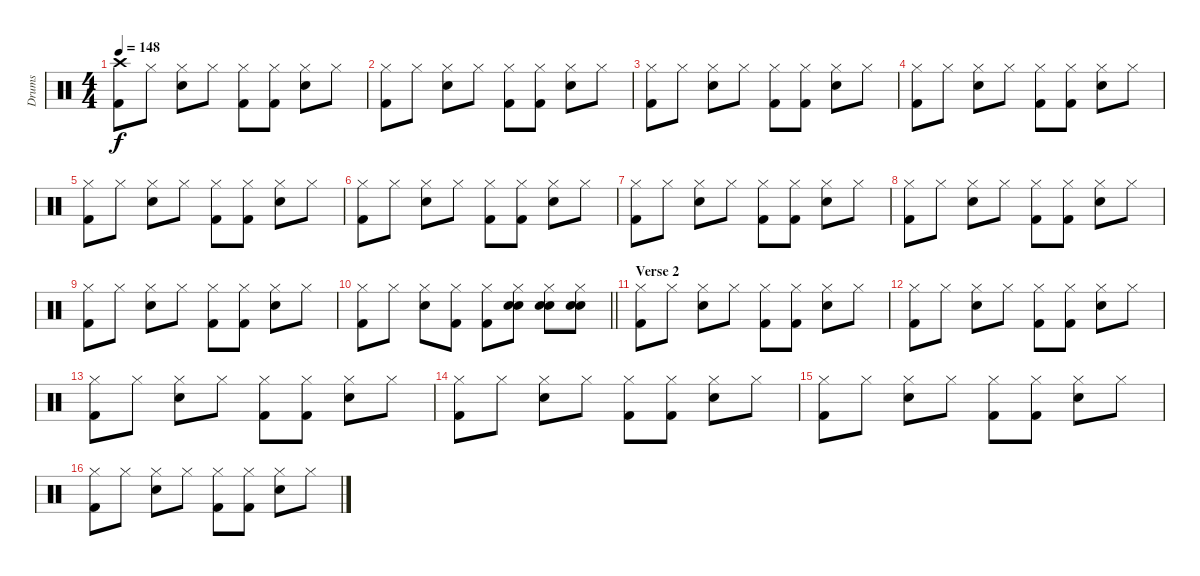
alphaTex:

\track ("Drums " "Drums ") {instrument percussion}
\staff {score}
\articulation defaults
\ts (4 4)
\tempo 148
\clef neutral
\ks c
("Crash high (hit)" "Kick (hit) 2").8{dy f} "Hi-Hat (closed)".8 ("Hi-Hat (closed)" "Snare (hit) 2").8 "Hi-Hat (closed)".8 ("Hi-Hat (closed)" "Kick (hit) 2").8 ("Hi-Hat (closed)" "Kick (hit) 2").8 ("Hi-Hat (closed)" "Snare (hit) 2").8 "Hi-Hat (closed)".8 |
("Hi-Hat (closed)" "Kick (hit) 2").8 "Hi-Hat (closed)".8 ("Hi-Hat (closed)" "Snare (hit) 2").8 "Hi-Hat (closed)".8 ("Hi-Hat (closed)" "Kick (hit) 2").8 ("Hi-Hat (closed)" "Kick (hit) 2").8 ("Hi-Hat (closed)" "Snare (hit) 2").8 "Hi-Hat (closed)".8 |
("Hi-Hat (closed)" "Kick (hit) 2").8 "Hi-Hat (closed)".8 ("Hi-Hat (closed)" "Snare (hit) 2").8 "Hi-Hat (closed)".8 ("Hi-Hat (closed)" "Kick (hit) 2").8 ("Hi-Hat (closed)" "Kick (hit) 2").8 ("Hi-Hat (closed)" "Snare (hit) 2").8 "Hi-Hat (closed)".8 |
("Hi-Hat (closed)" "Kick (hit) 2").8 "Hi-Hat (closed)".8 ("Hi-Hat (closed)" "Snare (hit) 2").8 "Hi-Hat (closed)".8 ("Hi-Hat (closed)" "Kick (hit) 2").8 ("Hi-Hat (closed)" "Kick (hit) 2").8 ("Hi-Hat (closed)" "Snare (hit) 2").8 "Hi-Hat (closed)".8 |
("Hi-Hat (closed)" "Kick (hit) 2").8 "Hi-Hat (closed)".8 ("Hi-Hat (closed)" "Snare (hit) 2").8 "Hi-Hat (closed)".8 ("Hi-Hat (closed)" "Kick (hit) 2").8 ("Hi-Hat (closed)" "Kick (hit) 2").8 ("Hi-Hat (closed)" "Snare (hit) 2").8 "Hi-Hat (closed)".8 |
("Hi-Hat (closed)" "Kick (hit) 2").8 "Hi-Hat (closed)".8 ("Hi-Hat (closed)" "Snare (hit) 2").8 "Hi-Hat (closed)".8 ("Hi-Hat (closed)" "Kick (hit) 2").8 ("Hi-Hat (closed)" "Kick (hit) 2").8 ("Hi-Hat (closed)" "Snare (hit) 2").8 "Hi-Hat (closed)".8 |
("Hi-Hat (closed)" "Kick (hit) 2").8 "Hi-Hat (closed)".8 ("Hi-Hat (closed)" "Snare (hit) 2").8 "Hi-Hat (closed)".8 ("Hi-Hat (closed)" "Kick (hit) 2").8 ("Hi-Hat (closed)" "Kick (hit) 2").8 ("Hi-Hat (closed)" "Snare (hit) 2").8 "Hi-Hat (closed)".8 |
("Hi-Hat (closed)" "Kick (hit) 2").8 "Hi-Hat (closed)".8 ("Hi-Hat (closed)" "Snare (hit) 2").8 "Hi-Hat (closed)".8 ("Hi-Hat (closed)" "Kick (hit) 2").8 ("Hi-Hat (closed)" "Kick (hit) 2").8 ("Hi-Hat (closed)" "Snare (hit) 2").8 "Hi-Hat (closed)".8 |
("Hi-Hat (closed)" "Kick (hit) 2").8 "Hi-Hat (closed)".8 ("Hi-Hat (closed)" "Snare (hit) 2").8 "Hi-Hat (closed)".8 ("Hi-Hat (closed)" "Kick (hit) 2").8 ("Hi-Hat (closed)" "Kick (hit) 2").8 ("Hi-Hat (closed)" "Snare (hit) 2").8 "Hi-Hat (closed)".8 |
\barLineRight lightlight
("Hi-Hat (closed)" "Kick (hit) 2").8 "Hi-Hat (closed)".8 ("Hi-Hat (closed)" "Snare (hit) 2").8 ("Hi-Hat (closed)" "Kick (hit) 2").8 ("Hi-Hat (closed)" "Kick (hit) 2").8 ("Hand Clap (hit)" "Hi-Hat (closed)" "Snare (hit) 2").8 ("Hand Clap (hit)" "Hi-Hat (closed)" "Snare (hit) 2").8 ("Hand Clap (hit)" "Hi-Hat (closed)" "Snare (hit) 2").8 |
\section ("" "Verse 2")
("Hi-Hat (closed)" "Kick (hit) 2").8 "Hi-Hat (closed)".8 ("Hi-Hat (closed)" "Snare (hit) 2").8 "Hi-Hat (closed)".8 ("Hi-Hat (closed)" "Kick (hit) 2").8 ("Hi-Hat (closed)" "Kick (hit) 2").8 ("Hi-Hat (closed)" "Snare (hit) 2").8 "Hi-Hat (closed)".8 |
("Hi-Hat (closed)" "Kick (hit) 2").8 "Hi-Hat (closed)".8 ("Hi-Hat (closed)" "Snare (hit) 2").8 "Hi-Hat (closed)".8 ("Hi-Hat (closed)" "Kick (hit) 2").8 ("Hi-Hat (closed)" "Kick (hit) 2").8 ("Hi-Hat (closed)" "Snare (hit) 2").8 "Hi-Hat (closed)".8 |
("Hi-Hat (closed)" "Kick (hit) 2").8 "Hi-Hat (closed)".8 ("Hi-Hat (closed)" "Snare (hit) 2").8 "Hi-Hat (closed)".8 ("Hi-Hat (closed)" "Kick (hit) 2").8 ("Hi-Hat (closed)" "Kick (hit) 2").8 ("Hi-Hat (closed)" "Snare (hit) 2").8 "Hi-Hat (closed)".8 |
("Hi-Hat (closed)" "Kick (hit) 2").8 "Hi-Hat (closed)".8 ("Hi-Hat (closed)" "Snare (hit) 2").8 "Hi-Hat (closed)".8 ("Hi-Hat (closed)" "Kick (hit) 2").8 ("Hi-Hat (closed)" "Kick (hit) 2").8 ("Hi-Hat (closed)" "Snare (hit) 2").8 "Hi-Hat (closed)".8 |
("Hi-Hat (closed)" "Kick (hit) 2").8 "Hi-Hat (closed)".8 ("Hi-Hat (closed)" "Snare (hit) 2").8 "Hi-Hat (closed)".8 ("Hi-Hat (closed)" "Kick (hit) 2").8 ("Hi-Hat (closed)" "Kick (hit) 2").8 ("Hi-Hat (closed)" "Snare (hit) 2").8 "Hi-Hat (closed)".8 |
("Hi-Hat (closed)" "Kick (hit) 2").8 "Hi-Hat (closed)".8 ("Hi-Hat (closed)" "Snare (hit) 2").8 "Hi-Hat (closed)".8 ("Hi-Hat (closed)" "Kick (hit) 2").8 ("Hi-Hat (closed)" "Kick (hit) 2").8 ("Hi-Hat (closed)" "Snare (hit) 2").8 "Hi-Hat (closed)".8
